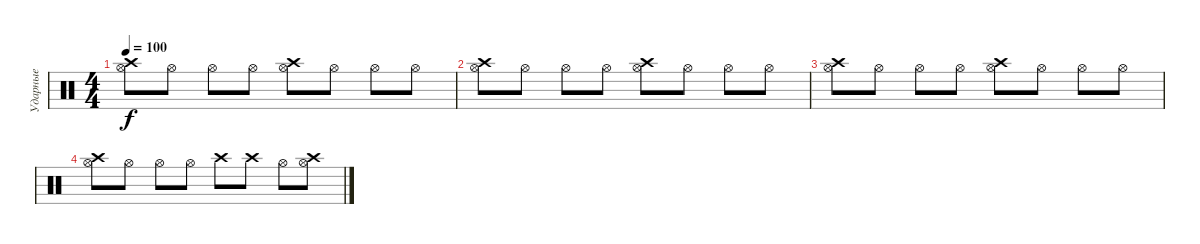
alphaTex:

\track ("Ударные" "Ударные") {instrument percussion}
\staff {score}
\articulation defaults
\ts (4 4)
\tempo 100
\clef neutral
\ks c
("Hi-Hat (open)" "Crash high (hit)").8{dy f} "Hi-Hat (open)".8 "Hi-Hat (open)".8 "Hi-Hat (open)".8 ("Hi-Hat (open)" "Crash high (hit)").8 "Hi-Hat (open)".8 "Hi-Hat (open)".8 "Hi-Hat (open)".8 |
("Hi-Hat (open)" "Crash high (hit)").8 "Hi-Hat (open)".8 "Hi-Hat (open)".8 "Hi-Hat (open)".8 ("Hi-Hat (open)" "Crash high (hit)").8 "Hi-Hat (open)".8 "Hi-Hat (open)".8 "Hi-Hat (open)".8 |
("Hi-Hat (open)" "Crash high (hit)").8 "Hi-Hat (open)".8 "Hi-Hat (open)".8 "Hi-Hat (open)".8 ("Hi-Hat (open)" "Crash high (hit)").8 "Hi-Hat (open)".8 "Hi-Hat (open)".8 "Hi-Hat (open)".8 |
("Hi-Hat (open)" "Crash high (hit)").8 "Hi-Hat (open)".8 "Hi-Hat (open)".8 "Hi-Hat (open)".8 "Crash high (hit)".8 "Crash high (hit)".8 "Hi-Hat (open)".8 ("Hi-Hat (open)" "Crash high (hit)").8
